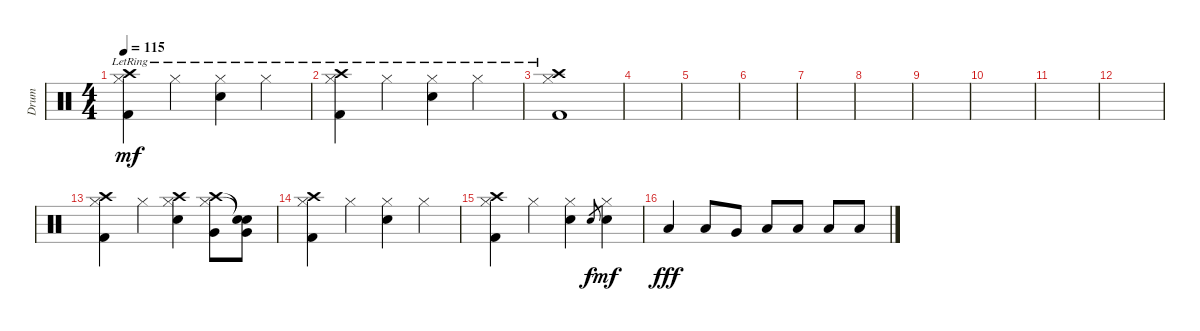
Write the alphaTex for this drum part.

\track ("Drum" "Drum") {instrument percussion}
\staff {score}
\articulation defaults
\ts (4 4)
\tempo 115
\clef neutral
\ks c
("Kick (hit) 2"{lr} "Hi-Hat (closed)"{lr} "Crash high (hit)").4{dy mf} "Hi-Hat (closed)"{lr}.4 ("Snare (hit) 2"{lr} "Hi-Hat (closed)"{lr}).4 "Hi-Hat (closed)"{lr}.4 |
("Kick (hit) 2"{lr} "Hi-Hat (closed)"{lr} "Crash high (hit)"{lr}).4 "Hi-Hat (closed)"{lr}.4 ("Snare (hit) 2"{lr} "Hi-Hat (closed)"{lr}).4 "Hi-Hat (closed)"{lr}.4 |
("Kick (hit) 2"{lr} "Hi-Hat (closed)"{lr} "Crash high (hit)").1 |
|
|
|
|
|
|
|
|
|
("Kick (hit) 2" "Hi-Hat (closed)" "Crash high (hit)").4 "Hi-Hat (closed)".4 ("Snare (hit) 2" "Hi-Hat (closed)" "Crash high (hit)").4 ("Very Low Tom (hit)" "Hi-Hat (closed)" "Crash high (hit)").8 ("Very Low Tom (hit)" "Snare (hit)"{t} "Snare (hit)"{t}).8 |
("Kick (hit) 2" "Hi-Hat (closed)" "Crash high (hit)").4 "Hi-Hat (closed)".4 ("Snare (hit) 2" "Hi-Hat (closed)").4 "Hi-Hat (closed)".4 |
("Kick (hit) 2" "Hi-Hat (closed)" "Crash high (hit)").4 "Hi-Hat (closed)".4 ("Snare (hit) 2" "Hi-Hat (closed)").4 "Snare (hit) 2".8{gr dy f} ("Snare (hit) 2" "Hi-Hat (closed)").4{dy mf} |
"Low Tom (hit)".4{dy fff} "Low Floor Tom (hit)".8 "Very Low Tom (hit)".8 "Low Tom (hit)".8 "Low Tom (hit)".8 "Low Tom (hit)".8 "Low Tom (hit)".8
